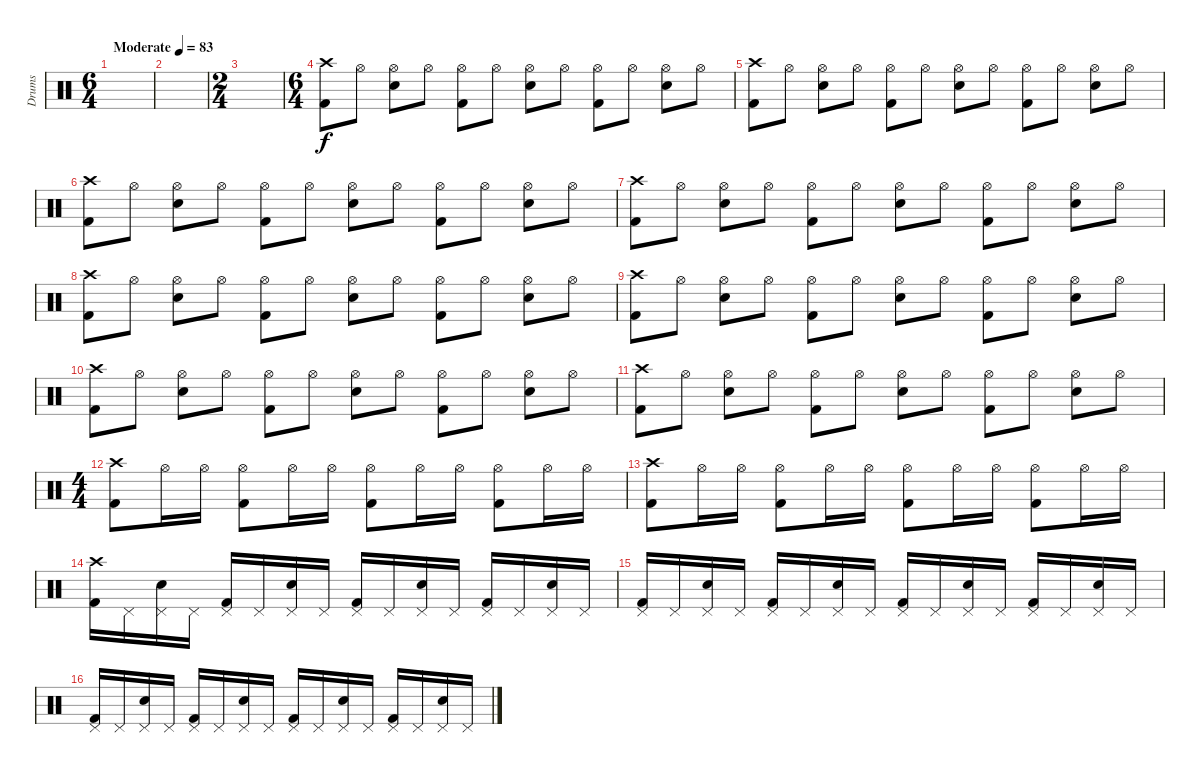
\track ("Drums" "Drums") {instrument percussion}
\staff {score}
\articulation defaults
\ts (6 4)
\tempo (83 "Moderate")
\clef neutral
\ks c
|
|
\ts (2 4)
|
\ts (6 4)
("Crash high (hit)" "Kick (hit) 2").8 "Hi-Hat (open)".8 ("Hi-Hat (open)" "Snare (hit) 2").8 "Hi-Hat (open)".8 ("Hi-Hat (open)" "Kick (hit) 2").8 "Hi-Hat (open)".8 ("Hi-Hat (open)" "Snare (hit) 2").8 "Hi-Hat (open)".8 ("Hi-Hat (open)" "Kick (hit) 2").8 "Hi-Hat (open)".8 ("Hi-Hat (open)" "Snare (hit) 2").8 "Hi-Hat (open)".8 |
("Crash high (hit)" "Kick (hit) 2").8 "Hi-Hat (open)".8 ("Hi-Hat (open)" "Snare (hit) 2").8 "Hi-Hat (open)".8 ("Hi-Hat (open)" "Kick (hit) 2").8 "Hi-Hat (open)".8 ("Hi-Hat (open)" "Snare (hit) 2").8 "Hi-Hat (open)".8 ("Hi-Hat (open)" "Kick (hit) 2").8 "Hi-Hat (open)".8 ("Hi-Hat (open)" "Snare (hit) 2").8 "Hi-Hat (open)".8 |
("Crash high (hit)" "Kick (hit) 2").8 "Hi-Hat (open)".8 ("Hi-Hat (open)" "Snare (hit) 2").8 "Hi-Hat (open)".8 ("Hi-Hat (open)" "Kick (hit) 2").8 "Hi-Hat (open)".8 ("Hi-Hat (open)" "Snare (hit) 2").8 "Hi-Hat (open)".8 ("Hi-Hat (open)" "Kick (hit) 2").8 "Hi-Hat (open)".8 ("Hi-Hat (open)" "Snare (hit) 2").8 "Hi-Hat (open)".8 |
("Crash high (hit)" "Kick (hit) 2").8 "Hi-Hat (open)".8 ("Hi-Hat (open)" "Snare (hit) 2").8 "Hi-Hat (open)".8 ("Hi-Hat (open)" "Kick (hit) 2").8 "Hi-Hat (open)".8 ("Hi-Hat (open)" "Snare (hit) 2").8 "Hi-Hat (open)".8 ("Hi-Hat (open)" "Kick (hit) 2").8 "Hi-Hat (open)".8 ("Hi-Hat (open)" "Snare (hit) 2").8 "Hi-Hat (open)".8 |
("Crash high (hit)" "Kick (hit) 2").8 "Hi-Hat (open)".8 ("Hi-Hat (open)" "Snare (hit) 2").8 "Hi-Hat (open)".8 ("Hi-Hat (open)" "Kick (hit) 2").8 "Hi-Hat (open)".8 ("Hi-Hat (open)" "Snare (hit) 2").8 "Hi-Hat (open)".8 ("Hi-Hat (open)" "Kick (hit) 2").8 "Hi-Hat (open)".8 ("Hi-Hat (open)" "Snare (hit) 2").8 "Hi-Hat (open)".8 |
("Crash high (hit)" "Kick (hit) 2").8 "Hi-Hat (open)".8 ("Hi-Hat (open)" "Snare (hit) 2").8 "Hi-Hat (open)".8 ("Hi-Hat (open)" "Kick (hit) 2").8 "Hi-Hat (open)".8 ("Hi-Hat (open)" "Snare (hit) 2").8 "Hi-Hat (open)".8 ("Hi-Hat (open)" "Kick (hit) 2").8 "Hi-Hat (open)".8 ("Hi-Hat (open)" "Snare (hit) 2").8 "Hi-Hat (open)".8 |
("Crash high (hit)" "Kick (hit) 2").8 "Hi-Hat (open)".8 ("Hi-Hat (open)" "Snare (hit) 2").8 "Hi-Hat (open)".8 ("Hi-Hat (open)" "Kick (hit) 2").8 "Hi-Hat (open)".8 ("Hi-Hat (open)" "Snare (hit) 2").8 "Hi-Hat (open)".8 ("Hi-Hat (open)" "Kick (hit) 2").8 "Hi-Hat (open)".8 ("Hi-Hat (open)" "Snare (hit) 2").8 "Hi-Hat (open)".8 |
("Crash high (hit)" "Kick (hit) 2").8 "Hi-Hat (open)".8 ("Hi-Hat (open)" "Snare (hit) 2").8 "Hi-Hat (open)".8 ("Hi-Hat (open)" "Kick (hit) 2").8 "Hi-Hat (open)".8 ("Hi-Hat (open)" "Snare (hit) 2").8 "Hi-Hat (open)".8 ("Hi-Hat (open)" "Kick (hit) 2").8 "Hi-Hat (open)".8 ("Hi-Hat (open)" "Snare (hit) 2").8 "Hi-Hat (open)".8 |
\ts (4 4)
("Crash high (hit)" "Kick (hit) 2").8 "Hi-Hat (open)".16 "Hi-Hat (open)".16 ("Hi-Hat (open)" "Kick (hit) 2").8 "Hi-Hat (open)".16 "Hi-Hat (open)".16 ("Hi-Hat (open)" "Kick (hit) 2").8 "Hi-Hat (open)".16 "Hi-Hat (open)".16 ("Hi-Hat (open)" "Kick (hit) 2").8 "Hi-Hat (open)".16 "Hi-Hat (open)".16 |
("Crash high (hit)" "Kick (hit) 2").8 "Hi-Hat (open)".16 "Hi-Hat (open)".16 ("Hi-Hat (open)" "Kick (hit) 2").8 "Hi-Hat (open)".16 "Hi-Hat (open)".16 ("Hi-Hat (open)" "Kick (hit) 2").8 "Hi-Hat (open)".16 "Hi-Hat (open)".16 ("Hi-Hat (open)" "Kick (hit) 2").8 "Hi-Hat (open)".16 "Hi-Hat (open)".16 |
("Crash high (hit)" "Kick (hit) 2").16 "Pedal Hi-Hat (hit)".16 ("Pedal Hi-Hat (hit)" "Snare (hit) 2").16 "Pedal Hi-Hat (hit)".16 ("Pedal Hi-Hat (hit)" "Kick (hit) 2").16 "Pedal Hi-Hat (hit)".16 ("Pedal Hi-Hat (hit)" "Snare (hit) 2").16 "Pedal Hi-Hat (hit)".16 ("Pedal Hi-Hat (hit)" "Kick (hit) 2").16 "Pedal Hi-Hat (hit)".16 ("Pedal Hi-Hat (hit)" "Snare (hit) 2").16 "Pedal Hi-Hat (hit)".16 ("Pedal Hi-Hat (hit)" "Kick (hit) 2").16 "Pedal Hi-Hat (hit)".16 ("Pedal Hi-Hat (hit)" "Snare (hit) 2").16 "Pedal Hi-Hat (hit)".16 |
("Pedal Hi-Hat (hit)" "Kick (hit) 2").16 "Pedal Hi-Hat (hit)".16 ("Pedal Hi-Hat (hit)" "Snare (hit) 2").16 "Pedal Hi-Hat (hit)".16 ("Pedal Hi-Hat (hit)" "Kick (hit) 2").16 "Pedal Hi-Hat (hit)".16 ("Pedal Hi-Hat (hit)" "Snare (hit) 2").16 "Pedal Hi-Hat (hit)".16 ("Pedal Hi-Hat (hit)" "Kick (hit) 2").16 "Pedal Hi-Hat (hit)".16 ("Pedal Hi-Hat (hit)" "Snare (hit) 2").16 "Pedal Hi-Hat (hit)".16 ("Pedal Hi-Hat (hit)" "Kick (hit) 2").16 "Pedal Hi-Hat (hit)".16 ("Pedal Hi-Hat (hit)" "Snare (hit) 2").16 "Pedal Hi-Hat (hit)".16 |
("Pedal Hi-Hat (hit)" "Kick (hit) 2").16 "Pedal Hi-Hat (hit)".16 ("Pedal Hi-Hat (hit)" "Snare (hit) 2").16 "Pedal Hi-Hat (hit)".16 ("Pedal Hi-Hat (hit)" "Kick (hit) 2").16 "Pedal Hi-Hat (hit)".16 ("Pedal Hi-Hat (hit)" "Snare (hit) 2").16 "Pedal Hi-Hat (hit)".16 ("Pedal Hi-Hat (hit)" "Kick (hit) 2").16 "Pedal Hi-Hat (hit)".16 ("Pedal Hi-Hat (hit)" "Snare (hit) 2").16 "Pedal Hi-Hat (hit)".16 ("Pedal Hi-Hat (hit)" "Kick (hit) 2").16 "Pedal Hi-Hat (hit)".16 ("Pedal Hi-Hat (hit)" "Snare (hit) 2").16 "Pedal Hi-Hat (hit)".16
